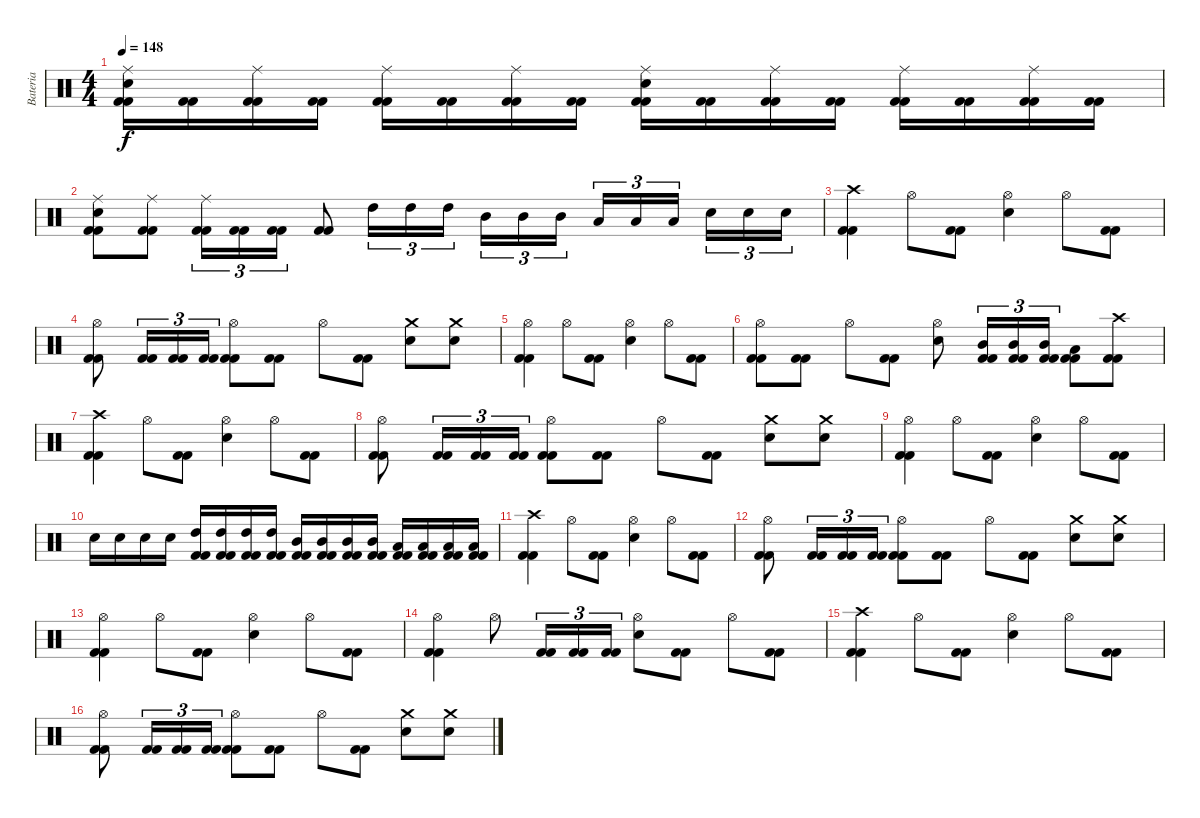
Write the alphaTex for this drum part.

\track ("Bateria" "Bateria") {instrument percussion}
\staff {score}
\articulation defaults
\ts (4 4)
\tempo 148
\clef neutral
\ks c
("Kick (hit) 2" "Kick (hit) 2" "Snare (hit) 2" "Ride (middle)").16{dy f} ("Kick (hit) 2" "Kick (hit) 2").16 ("Kick (hit) 2" "Kick (hit) 2" "Ride (middle)").16 ("Kick (hit) 2" "Kick (hit) 2").16 ("Kick (hit) 2" "Kick (hit) 2" "Ride (middle)").16 ("Kick (hit) 2" "Kick (hit) 2").16 ("Kick (hit) 2" "Kick (hit) 2" "Ride (middle)").16 ("Kick (hit) 2" "Kick (hit) 2").16 ("Kick (hit) 2" "Kick (hit) 2" "Snare (hit) 2" "Ride (middle)").16 ("Kick (hit) 2" "Kick (hit) 2").16 ("Kick (hit) 2" "Kick (hit) 2" "Ride (middle)").16 ("Kick (hit) 2" "Kick (hit) 2").16 ("Kick (hit) 2" "Kick (hit) 2" "Ride (middle)").16 ("Kick (hit) 2" "Kick (hit) 2").16 ("Kick (hit) 2" "Kick (hit) 2" "Ride (middle)").16 ("Kick (hit) 2" "Kick (hit) 2").16 |
("Kick (hit) 2" "Kick (hit) 2" "Snare (hit) 2" "Ride (middle)").8 ("Kick (hit) 2" "Kick (hit) 2" "Ride (middle)").8 ("Kick (hit) 2" "Kick (hit) 2" "Ride (middle)").16{tu (3 2)} ("Kick (hit) 2" "Kick (hit) 2").16{tu (3 2)} ("Kick (hit) 2" "Kick (hit) 2").16{tu (3 2)} ("Kick (hit) 2" "Kick (hit) 2").8 "High Tom (hit)".16{tu (3 2)} "High Tom (hit)".16{tu (3 2)} "High Tom (hit)".16{tu (3 2)} "Mid Tom (hit)".16{tu (3 2)} "Mid Tom (hit)".16{tu (3 2)} "Mid Tom (hit)".16{tu (3 2)} "Low Tom (hit)".16{tu (3 2)} "Low Tom (hit)".16{tu (3 2)} "Low Tom (hit)".16{tu (3 2)} "Snare (hit) 2".16{tu (3 2)} "Snare (hit) 2".16{tu (3 2)} "Snare (hit) 2".16{tu (3 2)} |
("Kick (hit) 2" "Kick (hit) 2" "Crash high (hit)").4 "Hi-Hat (open)".8 ("Kick (hit) 2" "Kick (hit) 2").8 ("Snare (hit) 2" "Hi-Hat (open)").4 "Hi-Hat (open)".8 ("Kick (hit) 2" "Kick (hit) 2").8 |
("Kick (hit) 2" "Kick (hit) 2" "Hi-Hat (open)").8 ("Kick (hit) 2" "Kick (hit) 2").16{tu (3 2)} ("Kick (hit) 2" "Kick (hit) 2").16{tu (3 2)} ("Kick (hit) 2" "Kick (hit) 2").16{tu (3 2)} ("Kick (hit) 2" "Kick (hit) 2" "Hi-Hat (open)").8 ("Kick (hit) 2" "Kick (hit) 2").8 "Hi-Hat (open)".8 ("Kick (hit) 2" "Kick (hit) 2").8 ("Snare (hit) 2" "Crash medium (hit)").8 ("Snare (hit) 2" "Crash medium (hit)").8 |
("Kick (hit) 2" "Kick (hit) 2" "Hi-Hat (open)").4 "Hi-Hat (open)".8 ("Kick (hit) 2" "Kick (hit) 2").8 ("Snare (hit) 2" "Hi-Hat (open)").4 "Hi-Hat (open)".8 ("Kick (hit) 2" "Kick (hit) 2").8 |
("Kick (hit) 2" "Kick (hit) 2" "Hi-Hat (open)").8 ("Kick (hit) 2" "Kick (hit) 2").8 "Hi-Hat (open)".8 ("Kick (hit) 2" "Kick (hit) 2").8 ("Snare (hit) 2" "Hi-Hat (open)").8 ("Kick (hit) 2" "Kick (hit) 2" "Mid Tom (hit)").16{tu (3 2)} ("Kick (hit) 2" "Kick (hit) 2" "Mid Tom (hit)").16{tu (3 2)} ("Kick (hit) 2" "Kick (hit) 2" "Mid Tom (hit)").16{tu (3 2)} ("Kick (hit) 2" "Kick (hit) 2" "Low Tom (hit)").8 ("Kick (hit) 2" "Kick (hit) 2" "Crash high (hit)").8 |
("Kick (hit) 2" "Kick (hit) 2" "Crash high (hit)").4 "Hi-Hat (open)".8 ("Kick (hit) 2" "Kick (hit) 2").8 ("Snare (hit) 2" "Hi-Hat (open)").4 "Hi-Hat (open)".8 ("Kick (hit) 2" "Kick (hit) 2").8 |
("Kick (hit) 2" "Kick (hit) 2" "Hi-Hat (open)").8 ("Kick (hit) 2" "Kick (hit) 2").16{tu (3 2)} ("Kick (hit) 2" "Kick (hit) 2").16{tu (3 2)} ("Kick (hit) 2" "Kick (hit) 2").16{tu (3 2)} ("Kick (hit) 2" "Kick (hit) 2" "Hi-Hat (open)").8 ("Kick (hit) 2" "Kick (hit) 2").8 "Hi-Hat (open)".8 ("Kick (hit) 2" "Kick (hit) 2").8 ("Snare (hit) 2" "Crash medium (hit)").8 ("Snare (hit) 2" "Crash medium (hit)").8 |
("Kick (hit) 2" "Kick (hit) 2" "Hi-Hat (open)").4 "Hi-Hat (open)".8 ("Kick (hit) 2" "Kick (hit) 2").8 ("Snare (hit) 2" "Hi-Hat (open)").4 "Hi-Hat (open)".8 ("Kick (hit) 2" "Kick (hit) 2").8 |
"Snare (hit) 2".16 "Snare (hit) 2".16 "Snare (hit) 2".16 "Snare (hit) 2".16 ("Kick (hit) 2" "Kick (hit) 2" "High Tom (hit)").16 ("Kick (hit) 2" "Kick (hit) 2" "High Tom (hit)").16 ("Kick (hit) 2" "Kick (hit) 2" "High Tom (hit)").16 ("Kick (hit) 2" "Kick (hit) 2" "High Tom (hit)").16 ("Kick (hit) 2" "Kick (hit) 2" "Mid Tom (hit)").16 ("Kick (hit) 2" "Kick (hit) 2" "Mid Tom (hit)").16 ("Kick (hit) 2" "Kick (hit) 2" "Mid Tom (hit)").16 ("Kick (hit) 2" "Kick (hit) 2" "Mid Tom (hit)").16 ("Kick (hit) 2" "Kick (hit) 2" "Low Tom (hit)").16 ("Kick (hit) 2" "Kick (hit) 2" "Low Tom (hit)").16 ("Kick (hit) 2" "Kick (hit) 2" "Low Tom (hit)").16 ("Kick (hit) 2" "Kick (hit) 2" "Low Tom (hit)").16 |
("Kick (hit) 2" "Kick (hit) 2" "Crash high (hit)").4 "Hi-Hat (open)".8 ("Kick (hit) 2" "Kick (hit) 2").8 ("Snare (hit) 2" "Hi-Hat (open)").4 "Hi-Hat (open)".8 ("Kick (hit) 2" "Kick (hit) 2").8 |
("Kick (hit) 2" "Kick (hit) 2" "Hi-Hat (open)").8 ("Kick (hit) 2" "Kick (hit) 2").16{tu (3 2)} ("Kick (hit) 2" "Kick (hit) 2").16{tu (3 2)} ("Kick (hit) 2" "Kick (hit) 2").16{tu (3 2)} ("Kick (hit) 2" "Kick (hit) 2" "Hi-Hat (open)").8 ("Kick (hit) 2" "Kick (hit) 2").8 "Hi-Hat (open)".8 ("Kick (hit) 2" "Kick (hit) 2").8 ("Snare (hit) 2" "Crash medium (hit)").8 ("Snare (hit) 2" "Crash medium (hit)").8 |
("Kick (hit) 2" "Kick (hit) 2" "Hi-Hat (open)").4 "Hi-Hat (open)".8 ("Kick (hit) 2" "Kick (hit) 2").8 ("Snare (hit) 2" "Hi-Hat (open)").4 "Hi-Hat (open)".8 ("Kick (hit) 2" "Kick (hit) 2").8 |
("Kick (hit) 2" "Kick (hit) 2" "Hi-Hat (open)").4 "Hi-Hat (open)".8 ("Kick (hit) 2" "Kick (hit) 2").16{tu (3 2)} ("Kick (hit) 2" "Kick (hit) 2").16{tu (3 2)} ("Kick (hit) 2" "Kick (hit) 2").16{tu (3 2)} ("Snare (hit) 2" "Hi-Hat (open)").8 ("Kick (hit) 2" "Kick (hit) 2").8 "Hi-Hat (open)".8 ("Kick (hit) 2" "Kick (hit) 2").8 |
("Kick (hit) 2" "Kick (hit) 2" "Crash high (hit)").4 "Hi-Hat (open)".8 ("Kick (hit) 2" "Kick (hit) 2").8 ("Snare (hit) 2" "Hi-Hat (open)").4 "Hi-Hat (open)".8 ("Kick (hit) 2" "Kick (hit) 2").8 |
("Kick (hit) 2" "Kick (hit) 2" "Hi-Hat (open)").8 ("Kick (hit) 2" "Kick (hit) 2").16{tu (3 2)} ("Kick (hit) 2" "Kick (hit) 2").16{tu (3 2)} ("Kick (hit) 2" "Kick (hit) 2").16{tu (3 2)} ("Kick (hit) 2" "Kick (hit) 2" "Hi-Hat (open)").8 ("Kick (hit) 2" "Kick (hit) 2").8 "Hi-Hat (open)".8 ("Kick (hit) 2" "Kick (hit) 2").8 ("Snare (hit) 2" "Crash medium (hit)").8 ("Snare (hit) 2" "Crash medium (hit)").8
